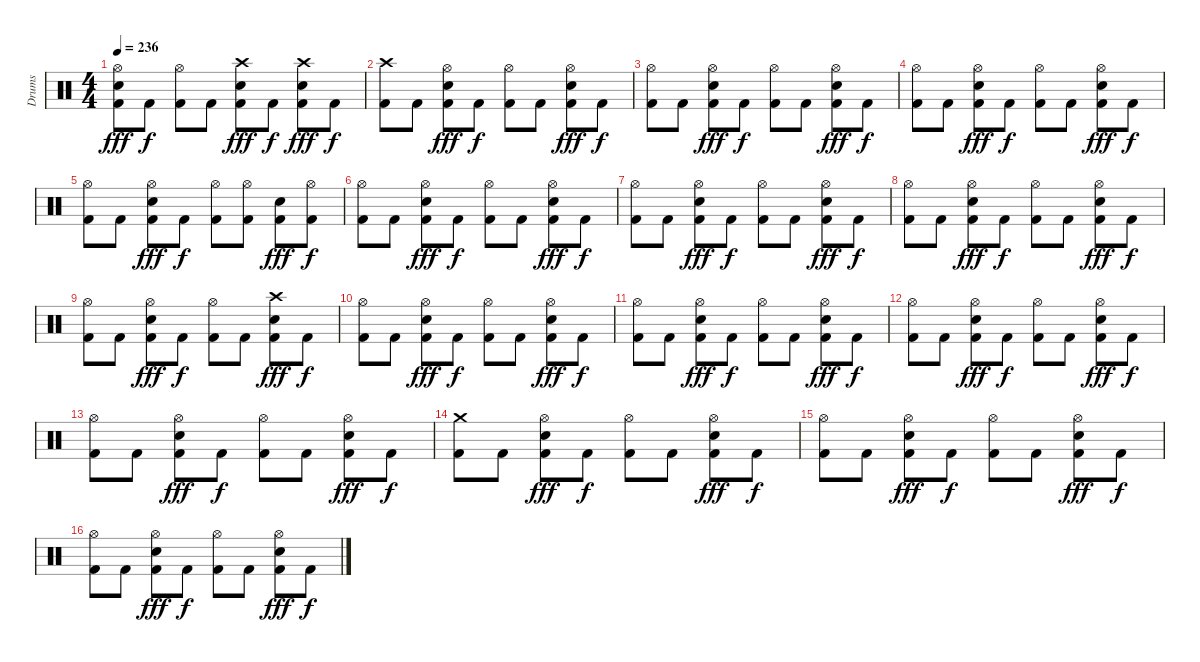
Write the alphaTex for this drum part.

\track ("Drums" "Drums") {instrument percussion}
\staff {score}
\articulation defaults
\ts (4 4)
\tempo 236
\clef neutral
\ks c
("Hi-Hat (open)" "Kick (hit) 2" "Electric Snare (hit)").8{dy fff} "Kick (hit) 2".8{dy f} ("Hi-Hat (open)" "Kick (hit) 2").8 "Kick (hit) 2".8 ("Crash high (hit)" "Kick (hit) 2" "Electric Snare (hit)").8{dy fff} "Kick (hit) 2".8{dy f} ("Crash high (hit)" "Kick (hit) 2" "Electric Snare (hit)").8{dy fff} "Kick (hit) 2".8{dy f} |
("Crash high (hit)" "Kick (hit) 2").8 "Kick (hit) 2".8 ("Hi-Hat (open)" "Kick (hit) 2" "Electric Snare (hit)").8{dy fff} "Kick (hit) 2".8{dy f} ("Hi-Hat (open)" "Kick (hit) 2").8 "Kick (hit) 2".8 ("Hi-Hat (open)" "Kick (hit) 2" "Electric Snare (hit)").8{dy fff} "Kick (hit) 2".8{dy f} |
("Hi-Hat (open)" "Kick (hit) 2").8 "Kick (hit) 2".8 ("Hi-Hat (open)" "Kick (hit) 2" "Electric Snare (hit)").8{dy fff} "Kick (hit) 2".8{dy f} ("Hi-Hat (open)" "Kick (hit) 2").8 "Kick (hit) 2".8 ("Hi-Hat (open)" "Kick (hit) 2" "Electric Snare (hit)").8{dy fff} "Kick (hit) 2".8{dy f} |
("Hi-Hat (open)" "Kick (hit) 2").8 "Kick (hit) 2".8 ("Hi-Hat (open)" "Kick (hit) 2" "Electric Snare (hit)").8{dy fff} "Kick (hit) 2".8{dy f} ("Hi-Hat (open)" "Kick (hit) 2").8 "Kick (hit) 2".8 ("Hi-Hat (open)" "Kick (hit) 2" "Electric Snare (hit)").8{dy fff} "Kick (hit) 2".8{dy f} |
("Hi-Hat (open)" "Kick (hit) 2").8 "Kick (hit) 2".8 ("Hi-Hat (open)" "Kick (hit) 2" "Electric Snare (hit)").8{dy fff} "Kick (hit) 2".8{dy f} ("Hi-Hat (open)" "Kick (hit) 2").8 ("Hi-Hat (open)" "Kick (hit) 2").8 ("Kick (hit) 2" "Electric Snare (hit)").8{dy fff} ("Hi-Hat (open)" "Kick (hit) 2").8{dy f} |
("Hi-Hat (open)" "Kick (hit) 2").8 "Kick (hit) 2".8 ("Hi-Hat (open)" "Kick (hit) 2" "Electric Snare (hit)").8{dy fff} "Kick (hit) 2".8{dy f} ("Hi-Hat (open)" "Kick (hit) 2").8 "Kick (hit) 2".8 ("Hi-Hat (open)" "Kick (hit) 2" "Electric Snare (hit)").8{dy fff} "Kick (hit) 2".8{dy f} |
("Hi-Hat (open)" "Kick (hit) 2").8 "Kick (hit) 2".8 ("Hi-Hat (open)" "Kick (hit) 2" "Electric Snare (hit)").8{dy fff} "Kick (hit) 2".8{dy f} ("Hi-Hat (open)" "Kick (hit) 2").8 "Kick (hit) 2".8 ("Hi-Hat (open)" "Kick (hit) 2" "Electric Snare (hit)").8{dy fff} "Kick (hit) 2".8{dy f} |
("Hi-Hat (open)" "Kick (hit) 2").8 "Kick (hit) 2".8 ("Hi-Hat (open)" "Kick (hit) 2" "Electric Snare (hit)").8{dy fff} "Kick (hit) 2".8{dy f} ("Hi-Hat (open)" "Kick (hit) 2").8 "Kick (hit) 2".8 ("Hi-Hat (open)" "Kick (hit) 2" "Electric Snare (hit)").8{dy fff} "Kick (hit) 2".8{dy f} |
("Hi-Hat (open)" "Kick (hit) 2").8 "Kick (hit) 2".8 ("Hi-Hat (open)" "Kick (hit) 2" "Electric Snare (hit)").8{dy fff} "Kick (hit) 2".8{dy f} ("Hi-Hat (open)" "Kick (hit) 2").8 "Kick (hit) 2".8 ("Crash high (hit)" "Kick (hit) 2" "Electric Snare (hit)").8{dy fff} "Kick (hit) 2".8{dy f} |
("Hi-Hat (open)" "Kick (hit) 2").8 "Kick (hit) 2".8 ("Hi-Hat (open)" "Kick (hit) 2" "Electric Snare (hit)").8{dy fff} "Kick (hit) 2".8{dy f} ("Hi-Hat (open)" "Kick (hit) 2").8 "Kick (hit) 2".8 ("Hi-Hat (open)" "Kick (hit) 2" "Electric Snare (hit)").8{dy fff} "Kick (hit) 2".8{dy f} |
("Hi-Hat (open)" "Kick (hit) 2").8 "Kick (hit) 2".8 ("Hi-Hat (open)" "Kick (hit) 2" "Electric Snare (hit)").8{dy fff} "Kick (hit) 2".8{dy f} ("Hi-Hat (open)" "Kick (hit) 2").8 "Kick (hit) 2".8 ("Hi-Hat (open)" "Kick (hit) 2" "Electric Snare (hit)").8{dy fff} "Kick (hit) 2".8{dy f} |
("Hi-Hat (open)" "Kick (hit) 2").8 "Kick (hit) 2".8 ("Hi-Hat (open)" "Kick (hit) 2" "Electric Snare (hit)").8{dy fff} "Kick (hit) 2".8{dy f} ("Hi-Hat (open)" "Kick (hit) 2").8 "Kick (hit) 2".8 ("Hi-Hat (open)" "Kick (hit) 2" "Electric Snare (hit)").8{dy fff} "Kick (hit) 2".8{dy f} |
("Hi-Hat (open)" "Kick (hit) 2").8 "Kick (hit) 2".8 ("Hi-Hat (open)" "Kick (hit) 2" "Electric Snare (hit)").8{dy fff} "Kick (hit) 2".8{dy f} ("Hi-Hat (open)" "Kick (hit) 2").8 "Kick (hit) 2".8 ("Hi-Hat (open)" "Kick (hit) 2" "Electric Snare (hit)").8{dy fff} "Kick (hit) 2".8{dy f} |
("Crash medium (hit)" "Kick (hit) 2").8 "Kick (hit) 2".8 ("Hi-Hat (open)" "Kick (hit) 2" "Electric Snare (hit)").8{dy fff} "Kick (hit) 2".8{dy f} ("Hi-Hat (open)" "Kick (hit) 2").8 "Kick (hit) 2".8 ("Hi-Hat (open)" "Kick (hit) 2" "Electric Snare (hit)").8{dy fff} "Kick (hit) 2".8{dy f} |
("Hi-Hat (open)" "Kick (hit) 2").8 "Kick (hit) 2".8 ("Hi-Hat (open)" "Kick (hit) 2" "Electric Snare (hit)").8{dy fff} "Kick (hit) 2".8{dy f} ("Hi-Hat (open)" "Kick (hit) 2").8 "Kick (hit) 2".8 ("Hi-Hat (open)" "Kick (hit) 2" "Electric Snare (hit)").8{dy fff} "Kick (hit) 2".8{dy f} |
("Hi-Hat (open)" "Kick (hit) 2").8 "Kick (hit) 2".8 ("Hi-Hat (open)" "Kick (hit) 2" "Electric Snare (hit)").8{dy fff} "Kick (hit) 2".8{dy f} ("Hi-Hat (open)" "Kick (hit) 2").8 "Kick (hit) 2".8 ("Hi-Hat (open)" "Kick (hit) 2" "Electric Snare (hit)").8{dy fff} "Kick (hit) 2".8{dy f}
